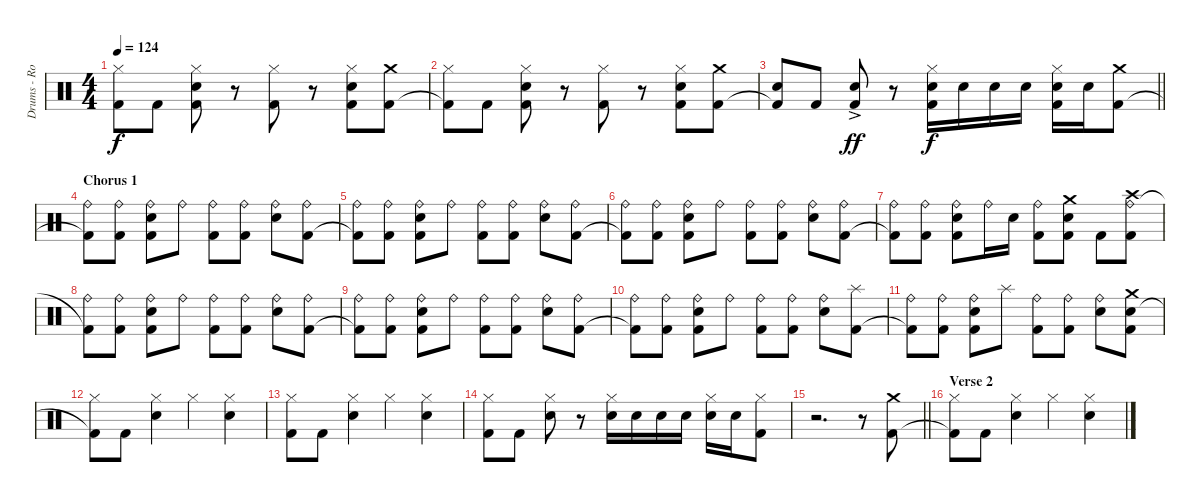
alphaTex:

\track ("Drums - Rockenfield" "Drums - Ro") {instrument percussion}
\staff {score}
\articulation defaults
\ts (4 4)
\tempo 124
\clef neutral
\ks c
("Hi-Hat (closed)" "Kick (hit) 2"{t}).8{dy f} "Kick (hit) 2".8 ("Hi-Hat (closed)" "Snare (hit) 2" "Kick (hit) 2").8 r.8 ("Hi-Hat (closed)" "Kick (hit) 2").8 r.8 ("Hi-Hat (closed)" "Snare (hit) 2" "Kick (hit) 2").8 ("Crash medium (hit)" "Kick (hit) 2").8 |
("Hi-Hat (closed)" "Kick (hit) 2"{t}).8 "Kick (hit) 2".8 ("Hi-Hat (closed)" "Snare (hit) 2" "Kick (hit) 2").8 r.8 ("Hi-Hat (closed)" "Kick (hit) 2").8 r.8 ("Hi-Hat (closed)" "Snare (hit) 2" "Kick (hit) 2").8 ("Crash medium (hit)" "Kick (hit) 2").8 |
\barLineRight lightlight
("Snare (hit) 2" "Kick (hit) 2"{t}).8 "Kick (hit) 2".8 ("Snare (hit) 2"{ac} "Kick (hit) 2").8{dy ff} r.8 ("Hi-Hat (closed)" "Snare (hit) 2" "Kick (hit) 2").16{dy f} "Snare (hit) 2".16 "Snare (hit) 2".16 "Snare (hit) 2".16 ("Hi-Hat (closed)" "Snare (hit) 2" "Kick (hit) 2").16 "Snare (hit) 2".16 ("Crash medium (hit)" "Kick (hit) 2").8 |
\section ("" "Chorus 1")
("Ride (bell)" "Kick (hit) 2"{t}).8 ("Ride (bell)" "Kick (hit) 2").8 ("Ride (bell)" "Snare (hit) 2" "Kick (hit) 2").8 "Ride (bell)".8 ("Ride (bell)" "Kick (hit) 2").8 ("Ride (bell)" "Kick (hit) 2").8 ("Ride (bell)" "Snare (hit) 2").8 ("Ride (bell)" "Kick (hit) 2").8 |
("Ride (bell)" "Kick (hit) 2"{t}).8 ("Ride (bell)" "Kick (hit) 2").8 ("Ride (bell)" "Snare (hit) 2" "Kick (hit) 2").8 "Ride (bell)".8 ("Ride (bell)" "Kick (hit) 2").8 ("Ride (bell)" "Kick (hit) 2").8 ("Ride (bell)" "Snare (hit) 2").8 ("Ride (bell)" "Kick (hit) 2").8 |
("Ride (bell)" "Kick (hit) 2"{t}).8 ("Ride (bell)" "Kick (hit) 2").8 ("Ride (bell)" "Snare (hit) 2" "Kick (hit) 2").8 "Ride (bell)".8 ("Ride (bell)" "Kick (hit) 2").8 ("Ride (bell)" "Kick (hit) 2").8 ("Ride (bell)" "Snare (hit) 2").8 ("Ride (bell)" "Kick (hit) 2").8 |
("Ride (bell)" "Kick (hit) 2"{t}).8 ("Ride (bell)" "Kick (hit) 2").8 ("Ride (bell)" "Snare (hit) 2" "Kick (hit) 2").8 "Ride (bell)".16 "Snare (hit) 2".16 ("Ride (bell)" "Kick (hit) 2").8 ("Crash medium (hit)" "Snare (hit) 2" "Kick (hit) 2").8 "Kick (hit) 2".8 ("Crash high (hit)" "Ride (bell)" "Kick (hit) 2").8 |
("Ride (bell)" "Kick (hit) 2"{t}).8 ("Ride (bell)" "Kick (hit) 2").8 ("Ride (bell)" "Snare (hit) 2" "Kick (hit) 2").8 "Ride (bell)".8 ("Ride (bell)" "Kick (hit) 2").8 ("Ride (bell)" "Kick (hit) 2").8 ("Ride (bell)" "Snare (hit) 2").8 ("Ride (bell)" "Kick (hit) 2").8 |
("Ride (bell)" "Kick (hit) 2"{t}).8 ("Ride (bell)" "Kick (hit) 2").8 ("Ride (bell)" "Snare (hit) 2" "Kick (hit) 2").8 "Ride (bell)".8 ("Ride (bell)" "Kick (hit) 2").8 ("Ride (bell)" "Kick (hit) 2").8 ("Ride (bell)" "Snare (hit) 2").8 ("Ride (bell)" "Kick (hit) 2").8 |
("Ride (bell)" "Kick (hit) 2"{t}).8 ("Ride (bell)" "Kick (hit) 2").8 ("Ride (bell)" "Snare (hit) 2" "Kick (hit) 2").8 "Ride (bell)".8 ("Ride (bell)" "Kick (hit) 2").8 ("Ride (bell)" "Kick (hit) 2").8 ("Ride (bell)" "Snare (hit) 2").8 ("Splash (hit)" "Kick (hit) 2").8 |
("Ride (bell)" "Kick (hit) 2"{t}).8 ("Ride (bell)" "Kick (hit) 2").8 ("Ride (bell)" "Snare (hit) 2" "Kick (hit) 2").8 "Splash (hit)".8 ("Ride (bell)" "Kick (hit) 2").8 ("Ride (bell)" "Kick (hit) 2").8 ("Ride (bell)" "Snare (hit) 2").8 ("Crash medium (hit)" "Snare (hit) 2" "Kick (hit) 2").8 |
("Hi-Hat (closed)" "Kick (hit) 2"{t}).8 "Kick (hit) 2".8 ("Hi-Hat (closed)" "Snare (hit) 2").4 "Hi-Hat (closed)".4 ("Hi-Hat (closed)" "Snare (hit) 2").4 |
("Hi-Hat (closed)" "Kick (hit) 2").8 "Kick (hit) 2".8 ("Hi-Hat (closed)" "Snare (hit) 2").4 "Hi-Hat (closed)".4 ("Hi-Hat (closed)" "Snare (hit) 2").4 |
("Hi-Hat (closed)" "Kick (hit) 2").8 "Kick (hit) 2".8 ("Hi-Hat (closed)" "Snare (hit) 2").8 r.8 ("Hi-Hat (closed)" "Snare (hit) 2").16 "Snare (hit) 2".16 "Snare (hit) 2".16 "Snare (hit) 2".16 ("Hi-Hat (closed)" "Snare (hit) 2").16 "Snare (hit) 2".16 ("Hi-Hat (closed)" "Kick (hit) 2").8 |
\barLineRight lightlight
r.2{d} r.8 ("Crash medium (hit)" "Kick (hit) 2").8 |
\section ("" "Verse 2")
("Hi-Hat (closed)" "Kick (hit) 2"{t}).8 "Kick (hit) 2".8 ("Hi-Hat (closed)" "Snare (hit) 2").4 "Hi-Hat (closed)".4 ("Hi-Hat (closed)" "Snare (hit) 2").4
